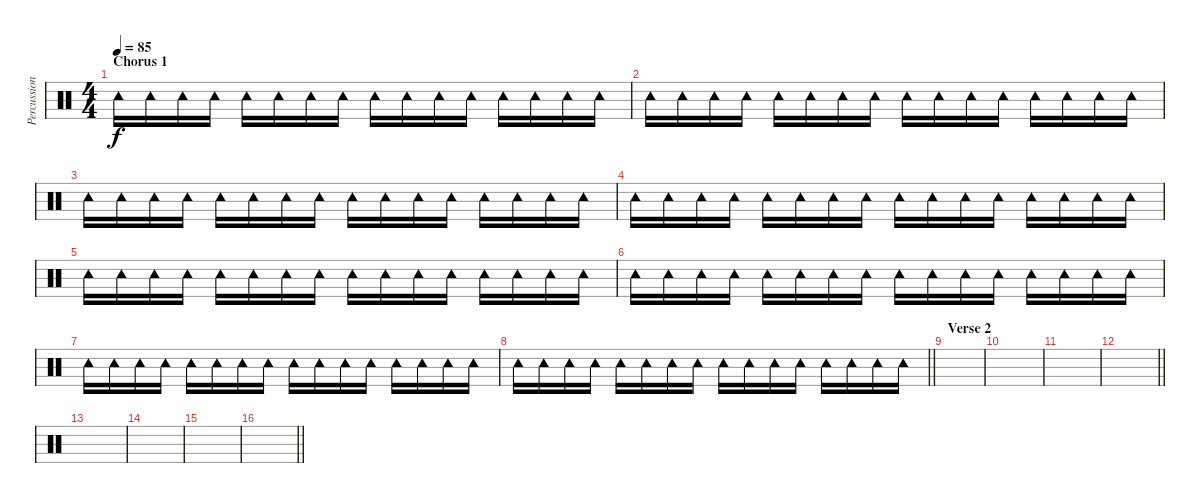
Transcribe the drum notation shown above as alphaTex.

\track ("Percussion" "Percussion") {instrument percussion}
\staff {score}
\articulation defaults
\ts (4 4)
\section ("" "Chorus 1")
\tempo 85
\clef neutral
\ks c "Tambourine (hit)".16{dy f} "Tambourine (hit)".16 "Tambourine (hit)".16 "Tambourine (hit)".16 "Tambourine (hit)".16 "Tambourine (hit)".16 "Tambourine (hit)".16 "Tambourine (hit)".16 "Tambourine (hit)".16 "Tambourine (hit)".16 "Tambourine (hit)".16 "Tambourine (hit)".16 "Tambourine (hit)".16 "Tambourine (hit)".16 "Tambourine (hit)".16 "Tambourine (hit)".16
|
"Tambourine (hit)".16 "Tambourine (hit)".16 "Tambourine (hit)".16 "Tambourine (hit)".16 "Tambourine (hit)".16 "Tambourine (hit)".16 "Tambourine (hit)".16 "Tambourine (hit)".16 "Tambourine (hit)".16 "Tambourine (hit)".16 "Tambourine (hit)".16 "Tambourine (hit)".16 "Tambourine (hit)".16 "Tambourine (hit)".16 "Tambourine (hit)".16 "Tambourine (hit)".16 |
"Tambourine (hit)".16 "Tambourine (hit)".16 "Tambourine (hit)".16 "Tambourine (hit)".16 "Tambourine (hit)".16 "Tambourine (hit)".16 "Tambourine (hit)".16 "Tambourine (hit)".16 "Tambourine (hit)".16 "Tambourine (hit)".16 "Tambourine (hit)".16 "Tambourine (hit)".16 "Tambourine (hit)".16 "Tambourine (hit)".16 "Tambourine (hit)".16 "Tambourine (hit)".16 |
"Tambourine (hit)".16 "Tambourine (hit)".16 "Tambourine (hit)".16 "Tambourine (hit)".16 "Tambourine (hit)".16 "Tambourine (hit)".16 "Tambourine (hit)".16 "Tambourine (hit)".16 "Tambourine (hit)".16 "Tambourine (hit)".16 "Tambourine (hit)".16 "Tambourine (hit)".16 "Tambourine (hit)".16 "Tambourine (hit)".16 "Tambourine (hit)".16 "Tambourine (hit)".16 |
"Tambourine (hit)".16 "Tambourine (hit)".16 "Tambourine (hit)".16 "Tambourine (hit)".16 "Tambourine (hit)".16 "Tambourine (hit)".16 "Tambourine (hit)".16 "Tambourine (hit)".16 "Tambourine (hit)".16 "Tambourine (hit)".16 "Tambourine (hit)".16 "Tambourine (hit)".16 "Tambourine (hit)".16 "Tambourine (hit)".16 "Tambourine (hit)".16 "Tambourine (hit)".16 |
"Tambourine (hit)".16 "Tambourine (hit)".16 "Tambourine (hit)".16 "Tambourine (hit)".16 "Tambourine (hit)".16 "Tambourine (hit)".16 "Tambourine (hit)".16 "Tambourine (hit)".16 "Tambourine (hit)".16 "Tambourine (hit)".16 "Tambourine (hit)".16 "Tambourine (hit)".16 "Tambourine (hit)".16 "Tambourine (hit)".16 "Tambourine (hit)".16 "Tambourine (hit)".16 |
"Tambourine (hit)".16 "Tambourine (hit)".16 "Tambourine (hit)".16 "Tambourine (hit)".16 "Tambourine (hit)".16 "Tambourine (hit)".16 "Tambourine (hit)".16 "Tambourine (hit)".16 "Tambourine (hit)".16 "Tambourine (hit)".16 "Tambourine (hit)".16 "Tambourine (hit)".16 "Tambourine (hit)".16 "Tambourine (hit)".16 "Tambourine (hit)".16 "Tambourine (hit)".16 |
\barLineRight lightlight "Tambourine (hit)".16 "Tambourine (hit)".16 "Tambourine (hit)".16 "Tambourine (hit)".16 "Tambourine (hit)".16 "Tambourine (hit)".16 "Tambourine (hit)".16 "Tambourine (hit)".16 "Tambourine (hit)".16 "Tambourine (hit)".16 "Tambourine (hit)".16 "Tambourine (hit)".16 "Tambourine (hit)".16 "Tambourine (hit)".16 "Tambourine (hit)".16 "Tambourine (hit)".16
|
\section ("" "Verse 2")
|
|
|
\barLineRight lightlight
|
|
|
|
\barLineRight lightlight
